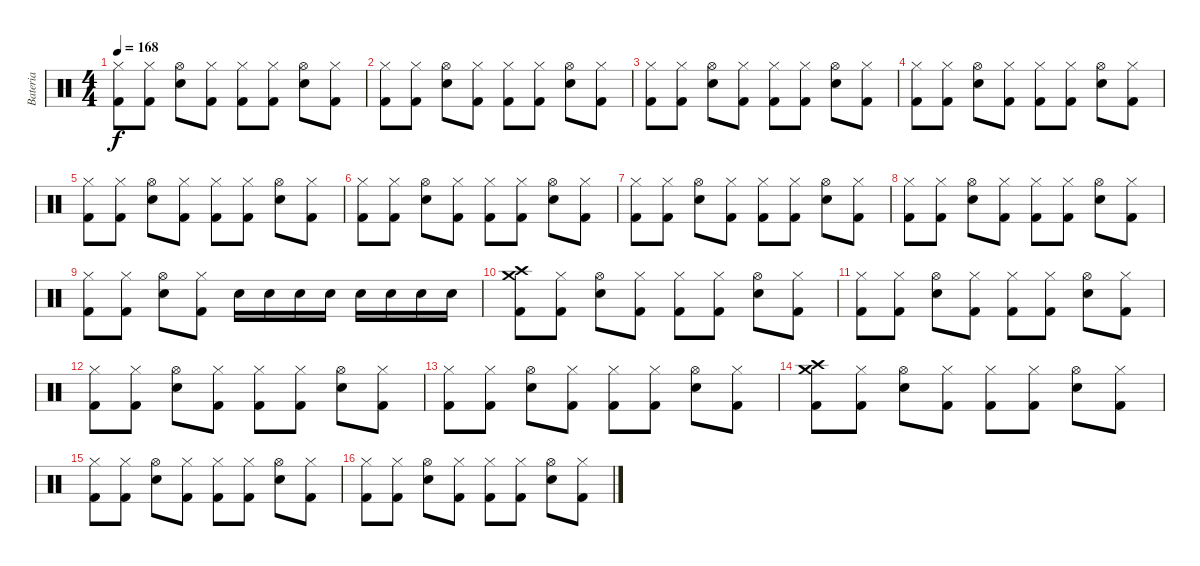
\track ("Bateria" "Bateria") {instrument percussion}
\staff {score}
\articulation defaults
\ts (4 4)
\tempo 168
\clef neutral
\ks c
("Hi-Hat (closed)" "Kick (hit) 2").8{dy f} ("Hi-Hat (closed)" "Kick (hit) 2").8 ("Hi-Hat (open)" "Snare (hit) 2").8 ("Hi-Hat (closed)" "Kick (hit) 2").8 ("Hi-Hat (closed)" "Kick (hit) 2").8 ("Hi-Hat (closed)" "Kick (hit) 2").8 ("Hi-Hat (open)" "Snare (hit) 2").8 ("Hi-Hat (closed)" "Kick (hit) 2").8 |
("Hi-Hat (closed)" "Kick (hit) 2").8 ("Hi-Hat (closed)" "Kick (hit) 2").8 ("Hi-Hat (open)" "Snare (hit) 2").8 ("Hi-Hat (closed)" "Kick (hit) 2").8 ("Hi-Hat (closed)" "Kick (hit) 2").8 ("Hi-Hat (closed)" "Kick (hit) 2").8 ("Hi-Hat (open)" "Snare (hit) 2").8 ("Hi-Hat (closed)" "Kick (hit) 2").8 |
("Hi-Hat (closed)" "Kick (hit) 2").8 ("Hi-Hat (closed)" "Kick (hit) 2").8 ("Hi-Hat (open)" "Snare (hit) 2").8 ("Hi-Hat (closed)" "Kick (hit) 2").8 ("Hi-Hat (closed)" "Kick (hit) 2").8 ("Hi-Hat (closed)" "Kick (hit) 2").8 ("Hi-Hat (open)" "Snare (hit) 2").8 ("Hi-Hat (closed)" "Kick (hit) 2").8 |
("Hi-Hat (closed)" "Kick (hit) 2").8 ("Hi-Hat (closed)" "Kick (hit) 2").8 ("Hi-Hat (open)" "Snare (hit) 2").8 ("Hi-Hat (closed)" "Kick (hit) 2").8 ("Hi-Hat (closed)" "Kick (hit) 2").8 ("Hi-Hat (closed)" "Kick (hit) 2").8 ("Hi-Hat (open)" "Snare (hit) 2").8 ("Hi-Hat (closed)" "Kick (hit) 2").8 |
("Hi-Hat (closed)" "Kick (hit) 2").8 ("Hi-Hat (closed)" "Kick (hit) 2").8 ("Hi-Hat (open)" "Snare (hit) 2").8 ("Hi-Hat (closed)" "Kick (hit) 2").8 ("Hi-Hat (closed)" "Kick (hit) 2").8 ("Hi-Hat (closed)" "Kick (hit) 2").8 ("Hi-Hat (open)" "Snare (hit) 2").8 ("Hi-Hat (closed)" "Kick (hit) 2").8 |
("Hi-Hat (closed)" "Kick (hit) 2").8 ("Hi-Hat (closed)" "Kick (hit) 2").8 ("Hi-Hat (open)" "Snare (hit) 2").8 ("Hi-Hat (closed)" "Kick (hit) 2").8 ("Hi-Hat (closed)" "Kick (hit) 2").8 ("Hi-Hat (closed)" "Kick (hit) 2").8 ("Hi-Hat (open)" "Snare (hit) 2").8 ("Hi-Hat (closed)" "Kick (hit) 2").8 |
("Hi-Hat (closed)" "Kick (hit) 2").8 ("Hi-Hat (closed)" "Kick (hit) 2").8 ("Hi-Hat (open)" "Snare (hit) 2").8 ("Hi-Hat (closed)" "Kick (hit) 2").8 ("Hi-Hat (closed)" "Kick (hit) 2").8 ("Hi-Hat (closed)" "Kick (hit) 2").8 ("Hi-Hat (open)" "Snare (hit) 2").8 ("Hi-Hat (closed)" "Kick (hit) 2").8 |
("Hi-Hat (closed)" "Kick (hit) 2").8 ("Hi-Hat (closed)" "Kick (hit) 2").8 ("Hi-Hat (open)" "Snare (hit) 2").8 ("Hi-Hat (closed)" "Kick (hit) 2").8 ("Hi-Hat (closed)" "Kick (hit) 2").8 ("Hi-Hat (closed)" "Kick (hit) 2").8 ("Hi-Hat (open)" "Snare (hit) 2").8 ("Hi-Hat (closed)" "Kick (hit) 2").8 |
("Hi-Hat (closed)" "Kick (hit) 2").8 ("Hi-Hat (closed)" "Kick (hit) 2").8 ("Hi-Hat (open)" "Snare (hit) 2").8 ("Hi-Hat (closed)" "Kick (hit) 2").8 "Snare (hit) 2".16 "Snare (hit) 2".16 "Snare (hit) 2".16 "Snare (hit) 2".16 "Snare (hit) 2".16 "Snare (hit) 2".16 "Snare (hit) 2".16 "Snare (hit) 2".16 |
("Crash high (hit)" "Crash medium (hit)" "Kick (hit) 2").8 ("Hi-Hat (closed)" "Kick (hit) 2").8 ("Hi-Hat (open)" "Snare (hit) 2").8 ("Hi-Hat (closed)" "Kick (hit) 2").8 ("Hi-Hat (closed)" "Kick (hit) 2").8 ("Hi-Hat (closed)" "Kick (hit) 2").8 ("Hi-Hat (open)" "Snare (hit) 2").8 ("Hi-Hat (closed)" "Kick (hit) 2").8 |
("Hi-Hat (closed)" "Kick (hit) 2").8 ("Hi-Hat (closed)" "Kick (hit) 2").8 ("Hi-Hat (open)" "Snare (hit) 2").8 ("Hi-Hat (closed)" "Kick (hit) 2").8 ("Hi-Hat (closed)" "Kick (hit) 2").8 ("Hi-Hat (closed)" "Kick (hit) 2").8 ("Hi-Hat (open)" "Snare (hit) 2").8 ("Hi-Hat (closed)" "Kick (hit) 2").8 |
("Hi-Hat (closed)" "Kick (hit) 2").8 ("Hi-Hat (closed)" "Kick (hit) 2").8 ("Hi-Hat (open)" "Snare (hit) 2").8 ("Hi-Hat (closed)" "Kick (hit) 2").8 ("Hi-Hat (closed)" "Kick (hit) 2").8 ("Hi-Hat (closed)" "Kick (hit) 2").8 ("Hi-Hat (open)" "Snare (hit) 2").8 ("Hi-Hat (closed)" "Kick (hit) 2").8 |
("Hi-Hat (closed)" "Kick (hit) 2").8 ("Hi-Hat (closed)" "Kick (hit) 2").8 ("Hi-Hat (open)" "Snare (hit) 2").8 ("Hi-Hat (closed)" "Kick (hit) 2").8 ("Hi-Hat (closed)" "Kick (hit) 2").8 ("Hi-Hat (closed)" "Kick (hit) 2").8 ("Hi-Hat (open)" "Snare (hit) 2").8 ("Hi-Hat (closed)" "Kick (hit) 2").8 |
("Crash high (hit)" "Crash medium (hit)" "Kick (hit) 2").8 ("Hi-Hat (closed)" "Kick (hit) 2").8 ("Hi-Hat (open)" "Snare (hit) 2").8 ("Hi-Hat (closed)" "Kick (hit) 2").8 ("Hi-Hat (closed)" "Kick (hit) 2").8 ("Hi-Hat (closed)" "Kick (hit) 2").8 ("Hi-Hat (open)" "Snare (hit) 2").8 ("Hi-Hat (closed)" "Kick (hit) 2").8 |
("Hi-Hat (closed)" "Kick (hit) 2").8 ("Hi-Hat (closed)" "Kick (hit) 2").8 ("Hi-Hat (open)" "Snare (hit) 2").8 ("Hi-Hat (closed)" "Kick (hit) 2").8 ("Hi-Hat (closed)" "Kick (hit) 2").8 ("Hi-Hat (closed)" "Kick (hit) 2").8 ("Hi-Hat (open)" "Snare (hit) 2").8 ("Hi-Hat (closed)" "Kick (hit) 2").8 |
("Hi-Hat (closed)" "Kick (hit) 2").8 ("Hi-Hat (closed)" "Kick (hit) 2").8 ("Hi-Hat (open)" "Snare (hit) 2").8 ("Hi-Hat (closed)" "Kick (hit) 2").8 ("Hi-Hat (closed)" "Kick (hit) 2").8 ("Hi-Hat (closed)" "Kick (hit) 2").8 ("Hi-Hat (open)" "Snare (hit) 2").8 ("Hi-Hat (closed)" "Kick (hit) 2").8
